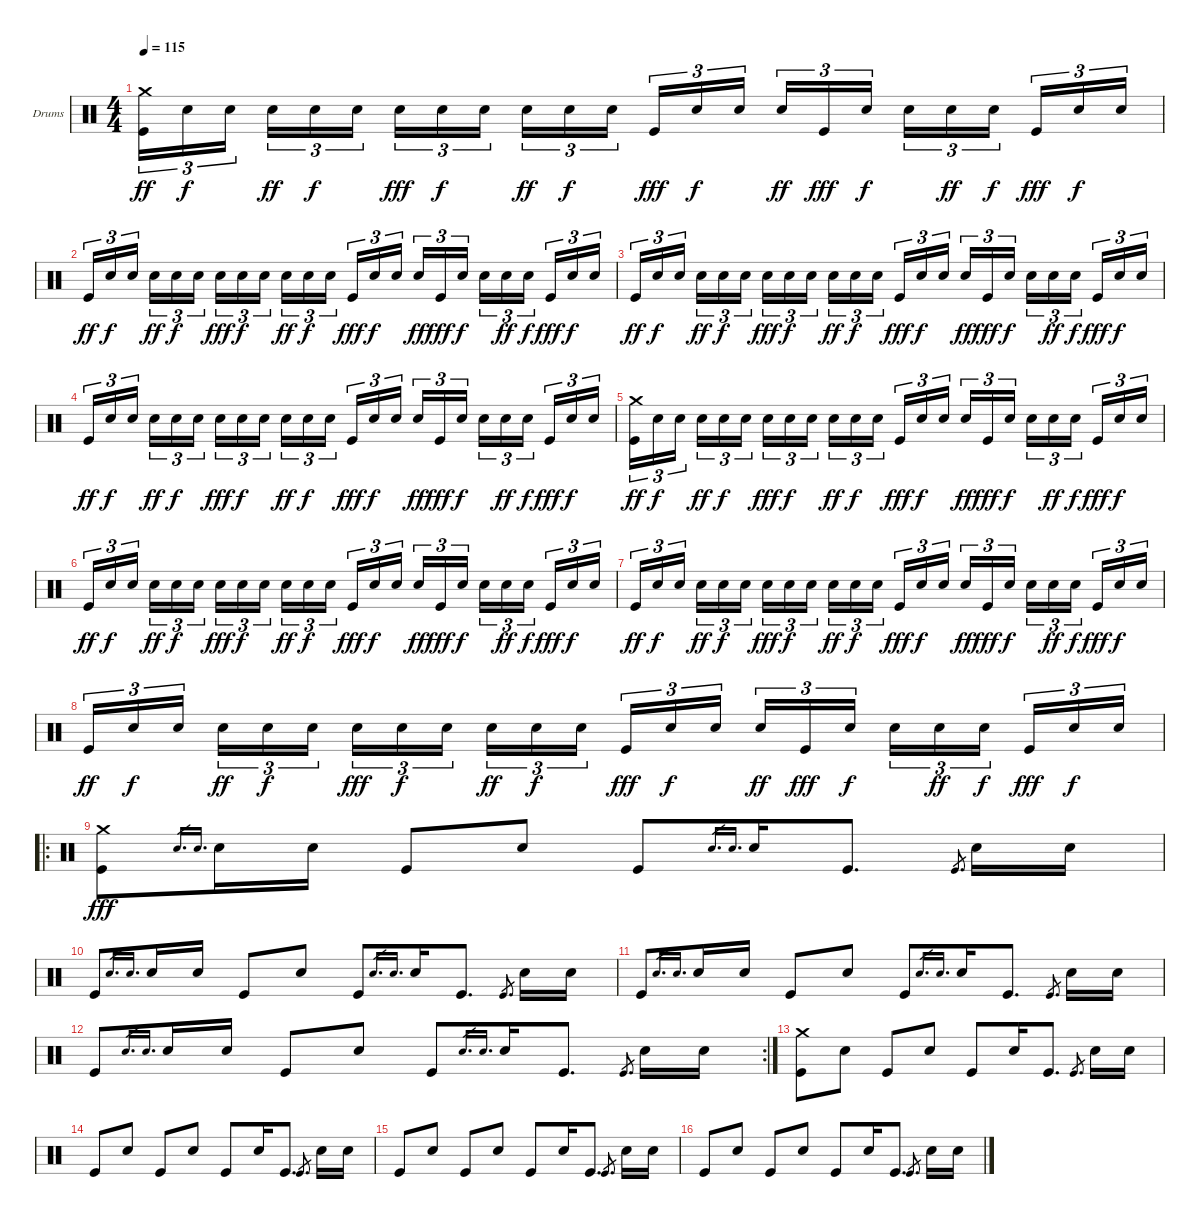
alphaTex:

\defaultSystemsLayout 4
\bracketExtendMode groupsimilarinstruments
\firstSystemTrackNameOrientation horizontal
\otherSystemsTrackNameOrientation horizontal
\track ("Drumkit" "Drums") {instrument percussion}
\staff {score}
\articulation defaults
\ts (4 4)
\tempo 115
\clef neutral
\ks c
("Kick (hit)" "Crash medium (hit)").16{tu (3 2) dy ff} "Snare (hit) 2".16{tu (3 2) dy f} "Snare (hit) 2".16{tu (3 2)} "Snare (hit) 2".16{tu (3 2) dy ff} "Snare (hit) 2".16{tu (3 2) dy f} "Snare (hit) 2".16{tu (3 2)} "Snare (hit) 2".16{tu (3 2) dy fff} "Snare (hit) 2".16{tu (3 2) dy f} "Snare (hit) 2".16{tu (3 2)} "Snare (hit) 2".16{tu (3 2) dy ff} "Snare (hit) 2".16{tu (3 2) dy f} "Snare (hit) 2".16{tu (3 2)} "Kick (hit)".16{tu (3 2) dy fff} "Snare (hit) 2".16{tu (3 2) dy f} "Snare (hit) 2".16{tu (3 2)} "Snare (hit) 2".16{tu (3 2) dy ff} "Kick (hit)".16{tu (3 2) dy fff} "Snare (hit) 2".16{tu (3 2) dy f} "Snare (hit) 2".16{tu (3 2)} "Snare (hit) 2".16{tu (3 2) dy ff} "Snare (hit) 2".16{tu (3 2) dy f} "Kick (hit)".16{tu (3 2) dy fff} "Snare (hit) 2".16{tu (3 2) dy f} "Snare (hit) 2".16{tu (3 2)} |
"Kick (hit)".16{tu (3 2) dy ff} "Snare (hit) 2".16{tu (3 2) dy f} "Snare (hit) 2".16{tu (3 2)} "Snare (hit) 2".16{tu (3 2) dy ff} "Snare (hit) 2".16{tu (3 2) dy f} "Snare (hit) 2".16{tu (3 2)} "Snare (hit) 2".16{tu (3 2) dy fff} "Snare (hit) 2".16{tu (3 2) dy f} "Snare (hit) 2".16{tu (3 2)} "Snare (hit) 2".16{tu (3 2) dy ff} "Snare (hit) 2".16{tu (3 2) dy f} "Snare (hit) 2".16{tu (3 2)} "Kick (hit)".16{tu (3 2) dy fff} "Snare (hit) 2".16{tu (3 2) dy f} "Snare (hit) 2".16{tu (3 2)} "Snare (hit) 2".16{tu (3 2) dy ff} "Kick (hit)".16{tu (3 2) dy fff} "Snare (hit) 2".16{tu (3 2) dy f} "Snare (hit) 2".16{tu (3 2)} "Snare (hit) 2".16{tu (3 2) dy ff} "Snare (hit) 2".16{tu (3 2) dy f} "Kick (hit)".16{tu (3 2) dy fff} "Snare (hit) 2".16{tu (3 2) dy f} "Snare (hit) 2".16{tu (3 2)} |
"Kick (hit)".16{tu (3 2) dy ff} "Snare (hit) 2".16{tu (3 2) dy f} "Snare (hit) 2".16{tu (3 2)} "Snare (hit) 2".16{tu (3 2) dy ff} "Snare (hit) 2".16{tu (3 2) dy f} "Snare (hit) 2".16{tu (3 2)} "Snare (hit) 2".16{tu (3 2) dy fff} "Snare (hit) 2".16{tu (3 2) dy f} "Snare (hit) 2".16{tu (3 2)} "Snare (hit) 2".16{tu (3 2) dy ff} "Snare (hit) 2".16{tu (3 2) dy f} "Snare (hit) 2".16{tu (3 2)} "Kick (hit)".16{tu (3 2) dy fff} "Snare (hit) 2".16{tu (3 2) dy f} "Snare (hit) 2".16{tu (3 2)} "Snare (hit) 2".16{tu (3 2) dy ff} "Kick (hit)".16{tu (3 2) dy fff} "Snare (hit) 2".16{tu (3 2) dy f} "Snare (hit) 2".16{tu (3 2)} "Snare (hit) 2".16{tu (3 2) dy ff} "Snare (hit) 2".16{tu (3 2) dy f} "Kick (hit)".16{tu (3 2) dy fff} "Snare (hit) 2".16{tu (3 2) dy f} "Snare (hit) 2".16{tu (3 2)} |
"Kick (hit)".16{tu (3 2) dy ff} "Snare (hit) 2".16{tu (3 2) dy f} "Snare (hit) 2".16{tu (3 2)} "Snare (hit) 2".16{tu (3 2) dy ff} "Snare (hit) 2".16{tu (3 2) dy f} "Snare (hit) 2".16{tu (3 2)} "Snare (hit) 2".16{tu (3 2) dy fff} "Snare (hit) 2".16{tu (3 2) dy f} "Snare (hit) 2".16{tu (3 2)} "Snare (hit) 2".16{tu (3 2) dy ff} "Snare (hit) 2".16{tu (3 2) dy f} "Snare (hit) 2".16{tu (3 2)} "Kick (hit)".16{tu (3 2) dy fff} "Snare (hit) 2".16{tu (3 2) dy f} "Snare (hit) 2".16{tu (3 2)} "Snare (hit) 2".16{tu (3 2) dy ff} "Kick (hit)".16{tu (3 2) dy fff} "Snare (hit) 2".16{tu (3 2) dy f} "Snare (hit) 2".16{tu (3 2)} "Snare (hit) 2".16{tu (3 2) dy ff} "Snare (hit) 2".16{tu (3 2) dy f} "Kick (hit)".16{tu (3 2) dy fff} "Snare (hit) 2".16{tu (3 2) dy f} "Snare (hit) 2".16{tu (3 2)} |
("Kick (hit)" "Crash medium (hit)").16{tu (3 2) dy ff} "Snare (hit) 2".16{tu (3 2) dy f} "Snare (hit) 2".16{tu (3 2)} "Snare (hit) 2".16{tu (3 2) dy ff} "Snare (hit) 2".16{tu (3 2) dy f} "Snare (hit) 2".16{tu (3 2)} "Snare (hit) 2".16{tu (3 2) dy fff} "Snare (hit) 2".16{tu (3 2) dy f} "Snare (hit) 2".16{tu (3 2)} "Snare (hit) 2".16{tu (3 2) dy ff} "Snare (hit) 2".16{tu (3 2) dy f} "Snare (hit) 2".16{tu (3 2)} "Kick (hit)".16{tu (3 2) dy fff} "Snare (hit) 2".16{tu (3 2) dy f} "Snare (hit) 2".16{tu (3 2)} "Snare (hit) 2".16{tu (3 2) dy ff} "Kick (hit)".16{tu (3 2) dy fff} "Snare (hit) 2".16{tu (3 2) dy f} "Snare (hit) 2".16{tu (3 2)} "Snare (hit) 2".16{tu (3 2) dy ff} "Snare (hit) 2".16{tu (3 2) dy f} "Kick (hit)".16{tu (3 2) dy fff} "Snare (hit) 2".16{tu (3 2) dy f} "Snare (hit) 2".16{tu (3 2)} |
"Kick (hit)".16{tu (3 2) dy ff} "Snare (hit) 2".16{tu (3 2) dy f} "Snare (hit) 2".16{tu (3 2)} "Snare (hit) 2".16{tu (3 2) dy ff} "Snare (hit) 2".16{tu (3 2) dy f} "Snare (hit) 2".16{tu (3 2)} "Snare (hit) 2".16{tu (3 2) dy fff} "Snare (hit) 2".16{tu (3 2) dy f} "Snare (hit) 2".16{tu (3 2)} "Snare (hit) 2".16{tu (3 2) dy ff} "Snare (hit) 2".16{tu (3 2) dy f} "Snare (hit) 2".16{tu (3 2)} "Kick (hit)".16{tu (3 2) dy fff} "Snare (hit) 2".16{tu (3 2) dy f} "Snare (hit) 2".16{tu (3 2)} "Snare (hit) 2".16{tu (3 2) dy ff} "Kick (hit)".16{tu (3 2) dy fff} "Snare (hit) 2".16{tu (3 2) dy f} "Snare (hit) 2".16{tu (3 2)} "Snare (hit) 2".16{tu (3 2) dy ff} "Snare (hit) 2".16{tu (3 2) dy f} "Kick (hit)".16{tu (3 2) dy fff} "Snare (hit) 2".16{tu (3 2) dy f} "Snare (hit) 2".16{tu (3 2)} |
"Kick (hit)".16{tu (3 2) dy ff} "Snare (hit) 2".16{tu (3 2) dy f} "Snare (hit) 2".16{tu (3 2)} "Snare (hit) 2".16{tu (3 2) dy ff} "Snare (hit) 2".16{tu (3 2) dy f} "Snare (hit) 2".16{tu (3 2)} "Snare (hit) 2".16{tu (3 2) dy fff} "Snare (hit) 2".16{tu (3 2) dy f} "Snare (hit) 2".16{tu (3 2)} "Snare (hit) 2".16{tu (3 2) dy ff} "Snare (hit) 2".16{tu (3 2) dy f} "Snare (hit) 2".16{tu (3 2)} "Kick (hit)".16{tu (3 2) dy fff} "Snare (hit) 2".16{tu (3 2) dy f} "Snare (hit) 2".16{tu (3 2)} "Snare (hit) 2".16{tu (3 2) dy ff} "Kick (hit)".16{tu (3 2) dy fff} "Snare (hit) 2".16{tu (3 2) dy f} "Snare (hit) 2".16{tu (3 2)} "Snare (hit) 2".16{tu (3 2) dy ff} "Snare (hit) 2".16{tu (3 2) dy f} "Kick (hit)".16{tu (3 2) dy fff} "Snare (hit) 2".16{tu (3 2) dy f} "Snare (hit) 2".16{tu (3 2)} |
"Kick (hit)".16{tu (3 2) dy ff} "Snare (hit) 2".16{tu (3 2) dy f} "Snare (hit) 2".16{tu (3 2)} "Snare (hit) 2".16{tu (3 2) dy ff} "Snare (hit) 2".16{tu (3 2) dy f} "Snare (hit) 2".16{tu (3 2)} "Snare (hit) 2".16{tu (3 2) dy fff} "Snare (hit) 2".16{tu (3 2) dy f} "Snare (hit) 2".16{tu (3 2)} "Snare (hit) 2".16{tu (3 2) dy ff} "Snare (hit) 2".16{tu (3 2) dy f} "Snare (hit) 2".16{tu (3 2)} "Kick (hit)".16{tu (3 2) dy fff} "Snare (hit) 2".16{tu (3 2) dy f} "Snare (hit) 2".16{tu (3 2)} "Snare (hit) 2".16{tu (3 2) dy ff} "Kick (hit)".16{tu (3 2) dy fff} "Snare (hit) 2".16{tu (3 2) dy f} "Snare (hit) 2".16{tu (3 2)} "Snare (hit) 2".16{tu (3 2) dy ff} "Snare (hit) 2".16{tu (3 2) dy f} "Kick (hit)".16{tu (3 2) dy fff} "Snare (hit) 2".16{tu (3 2) dy f} "Snare (hit) 2".16{tu (3 2)} |
\ro
("Kick (hit)" "Crash medium (hit)").8{dy fff} "Snare (hit) 2".16{d gr} "Snare (hit) 2".16{d gr} "Snare (hit) 2".16 "Snare (hit) 2".16 "Kick (hit)".8 "Snare (hit) 2".8 "Kick (hit)".8 "Snare (hit) 2".16{d gr} "Snare (hit) 2".16{d gr} "Snare (hit) 2".16 "Kick (hit)".8{d} "Kick (hit)".8{d gr} "Snare (hit) 2".16 "Snare (hit) 2".16 |
"Kick (hit)".8 "Snare (hit) 2".16{d gr} "Snare (hit) 2".16{d gr} "Snare (hit) 2".16 "Snare (hit) 2".16 "Kick (hit)".8 "Snare (hit) 2".8 "Kick (hit)".8 "Snare (hit) 2".16{d gr} "Snare (hit) 2".16{d gr} "Snare (hit) 2".16 "Kick (hit)".8{d} "Kick (hit)".8{d gr} "Snare (hit) 2".16 "Snare (hit) 2".16 |
"Kick (hit)".8 "Snare (hit) 2".16{d gr} "Snare (hit) 2".16{d gr} "Snare (hit) 2".16 "Snare (hit) 2".16 "Kick (hit)".8 "Snare (hit) 2".8 "Kick (hit)".8 "Snare (hit) 2".16{d gr} "Snare (hit) 2".16{d gr} "Snare (hit) 2".16 "Kick (hit)".8{d} "Kick (hit)".8{d gr} "Snare (hit) 2".16 "Snare (hit) 2".16 |
\rc 2 "Kick (hit)".8 "Snare (hit) 2".16{d gr} "Snare (hit) 2".16{d gr} "Snare (hit) 2".16 "Snare (hit) 2".16 "Kick (hit)".8 "Snare (hit) 2".8 "Kick (hit)".8 "Snare (hit) 2".16{d gr} "Snare (hit) 2".16{d gr} "Snare (hit) 2".16 "Kick (hit)".8{d} "Kick (hit)".8{d gr} "Snare (hit) 2".16 "Snare (hit) 2".16
|
("Kick (hit)" "Crash medium (hit)").8 "Snare (hit) 2".8 "Kick (hit)".8 "Snare (hit) 2".8 "Kick (hit)".8 "Snare (hit) 2".16 "Kick (hit)".8{d} "Kick (hit)".8{d gr} "Snare (hit) 2".16 "Snare (hit) 2".16 |
"Kick (hit)".8 "Snare (hit) 2".8 "Kick (hit)".8 "Snare (hit) 2".8 "Kick (hit)".8 "Snare (hit) 2".16 "Kick (hit)".8{d} "Kick (hit)".8{d gr} "Snare (hit) 2".16 "Snare (hit) 2".16 |
"Kick (hit)".8 "Snare (hit) 2".8 "Kick (hit)".8 "Snare (hit) 2".8 "Kick (hit)".8 "Snare (hit) 2".16 "Kick (hit)".8{d} "Kick (hit)".8{d gr} "Snare (hit) 2".16 "Snare (hit) 2".16 |
"Kick (hit)".8 "Snare (hit) 2".8 "Kick (hit)".8 "Snare (hit) 2".8 "Kick (hit)".8 "Snare (hit) 2".16 "Kick (hit)".8{d} "Kick (hit)".8{d gr} "Snare (hit) 2".16 "Snare (hit) 2".16
